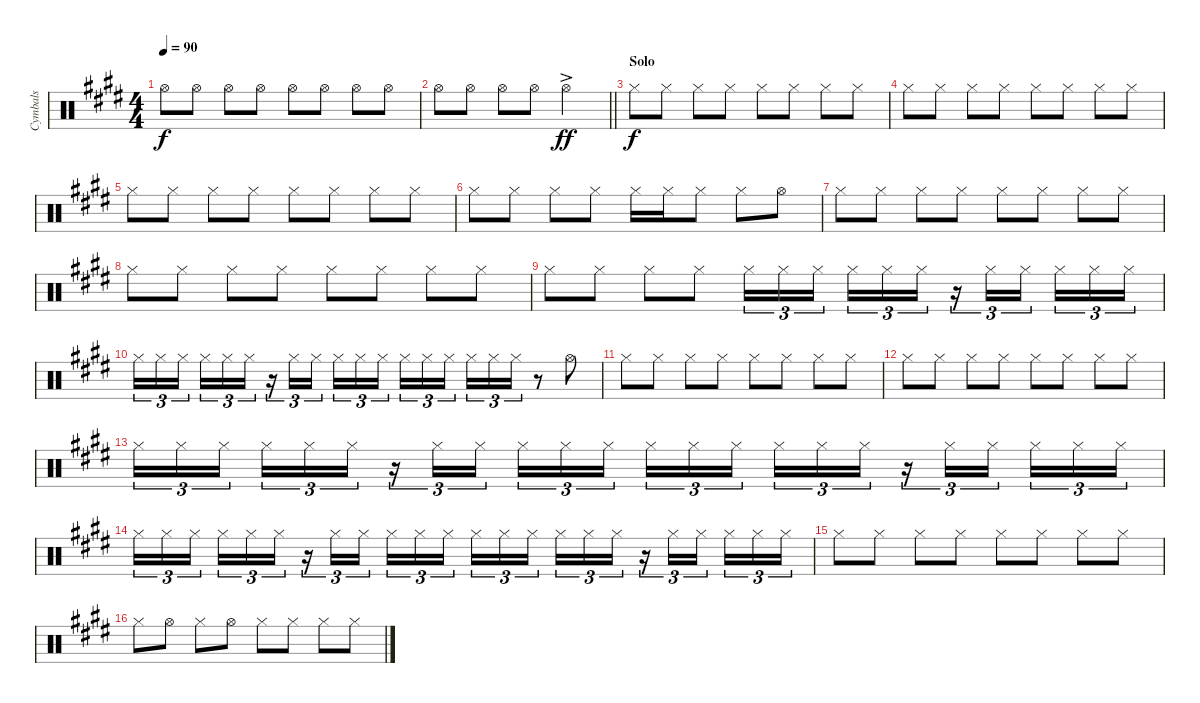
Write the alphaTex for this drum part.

\track ("Cymbals" "Cymbals") {instrument percussion}
\staff {score}
\articulation defaults
\ts (4 4)
\tempo 90
\clef neutral
\ks e "Hi-Hat (open)".8{dy f} "Hi-Hat (open)".8 "Hi-Hat (open)".8 "Hi-Hat (open)".8 "Hi-Hat (open)".8 "Hi-Hat (open)".8 "Hi-Hat (open)".8 "Hi-Hat (open)".8
|
\barLineRight lightlight "Hi-Hat (open)".8 "Hi-Hat (open)".8 "Hi-Hat (open)".8 "Hi-Hat (open)".8 "Hi-Hat (open)"{ac}.2{dy ff}
|
\section ("" "Solo")
"Hi-Hat (closed)".8{dy f} "Hi-Hat (closed)".8 "Hi-Hat (closed)".8 "Hi-Hat (closed)".8 "Hi-Hat (closed)".8 "Hi-Hat (closed)".8 "Hi-Hat (closed)".8 "Hi-Hat (closed)".8 |
"Hi-Hat (closed)".8 "Hi-Hat (closed)".8 "Hi-Hat (closed)".8 "Hi-Hat (closed)".8 "Hi-Hat (closed)".8 "Hi-Hat (closed)".8 "Hi-Hat (closed)".8 "Hi-Hat (closed)".8 |
"Hi-Hat (closed)".8 "Hi-Hat (closed)".8 "Hi-Hat (closed)".8 "Hi-Hat (closed)".8 "Hi-Hat (closed)".8 "Hi-Hat (closed)".8 "Hi-Hat (closed)".8 "Hi-Hat (closed)".8 |
"Hi-Hat (closed)".8 "Hi-Hat (closed)".8 "Hi-Hat (closed)".8 "Hi-Hat (closed)".8 "Hi-Hat (closed)".16 "Hi-Hat (closed)".16 "Hi-Hat (closed)".8 "Hi-Hat (closed)".8 "Hi-Hat (open)".8 |
"Hi-Hat (closed)".8 "Hi-Hat (closed)".8 "Hi-Hat (closed)".8 "Hi-Hat (closed)".8 "Hi-Hat (closed)".8 "Hi-Hat (closed)".8 "Hi-Hat (closed)".8 "Hi-Hat (closed)".8 |
"Hi-Hat (closed)".8 "Hi-Hat (closed)".8 "Hi-Hat (closed)".8 "Hi-Hat (closed)".8 "Hi-Hat (closed)".8 "Hi-Hat (closed)".8 "Hi-Hat (closed)".8 "Hi-Hat (closed)".8 |
"Hi-Hat (closed)".8 "Hi-Hat (closed)".8 "Hi-Hat (closed)".8 "Hi-Hat (closed)".8 "Hi-Hat (closed)".16{tu (3 2)} "Hi-Hat (closed)".16{tu (3 2)} "Hi-Hat (closed)".16{tu (3 2) beam splitsecondary} "Hi-Hat (closed)".16{tu (3 2)} "Hi-Hat (closed)".16{tu (3 2)} "Hi-Hat (closed)".16{tu (3 2)} r.16{tu (3 2)} "Hi-Hat (closed)".16{tu (3 2)} "Hi-Hat (closed)".16{tu (3 2) beam splitsecondary} "Hi-Hat (closed)".16{tu (3 2)} "Hi-Hat (closed)".16{tu (3 2)} "Hi-Hat (closed)".16{tu (3 2)} |
"Hi-Hat (closed)".16{tu (3 2)} "Hi-Hat (closed)".16{tu (3 2)} "Hi-Hat (closed)".16{tu (3 2) beam splitsecondary} "Hi-Hat (closed)".16{tu (3 2)} "Hi-Hat (closed)".16{tu (3 2)} "Hi-Hat (closed)".16{tu (3 2)} r.16{tu (3 2)} "Hi-Hat (closed)".16{tu (3 2)} "Hi-Hat (closed)".16{tu (3 2) beam splitsecondary} "Hi-Hat (closed)".16{tu (3 2)} "Hi-Hat (closed)".16{tu (3 2)} "Hi-Hat (closed)".16{tu (3 2)} "Hi-Hat (closed)".16{tu (3 2)} "Hi-Hat (closed)".16{tu (3 2)} "Hi-Hat (closed)".16{tu (3 2) beam splitsecondary} "Hi-Hat (closed)".16{tu (3 2)} "Hi-Hat (closed)".16{tu (3 2)} "Hi-Hat (closed)".16{tu (3 2)} r.8 "Hi-Hat (open)".8 |
"Hi-Hat (closed)".8 "Hi-Hat (closed)".8 "Hi-Hat (closed)".8 "Hi-Hat (closed)".8 "Hi-Hat (closed)".8 "Hi-Hat (closed)".8 "Hi-Hat (closed)".8 "Hi-Hat (closed)".8 |
"Hi-Hat (closed)".8 "Hi-Hat (closed)".8 "Hi-Hat (closed)".8 "Hi-Hat (closed)".8 "Hi-Hat (closed)".8 "Hi-Hat (closed)".8 "Hi-Hat (closed)".8 "Hi-Hat (closed)".8 |
"Hi-Hat (closed)".16{tu (3 2)} "Hi-Hat (closed)".16{tu (3 2)} "Hi-Hat (closed)".16{tu (3 2) beam splitsecondary} "Hi-Hat (closed)".16{tu (3 2)} "Hi-Hat (closed)".16{tu (3 2)} "Hi-Hat (closed)".16{tu (3 2)} r.16{tu (3 2)} "Hi-Hat (closed)".16{tu (3 2)} "Hi-Hat (closed)".16{tu (3 2) beam splitsecondary} "Hi-Hat (closed)".16{tu (3 2)} "Hi-Hat (closed)".16{tu (3 2)} "Hi-Hat (closed)".16{tu (3 2)} "Hi-Hat (closed)".16{tu (3 2)} "Hi-Hat (closed)".16{tu (3 2)} "Hi-Hat (closed)".16{tu (3 2) beam splitsecondary} "Hi-Hat (closed)".16{tu (3 2)} "Hi-Hat (closed)".16{tu (3 2)} "Hi-Hat (closed)".16{tu (3 2)} r.16{tu (3 2)} "Hi-Hat (closed)".16{tu (3 2)} "Hi-Hat (closed)".16{tu (3 2) beam splitsecondary} "Hi-Hat (closed)".16{tu (3 2)} "Hi-Hat (closed)".16{tu (3 2)} "Hi-Hat (closed)".16{tu (3 2)} |
"Hi-Hat (closed)".16{tu (3 2)} "Hi-Hat (closed)".16{tu (3 2)} "Hi-Hat (closed)".16{tu (3 2) beam splitsecondary} "Hi-Hat (closed)".16{tu (3 2)} "Hi-Hat (closed)".16{tu (3 2)} "Hi-Hat (closed)".16{tu (3 2)} r.16{tu (3 2)} "Hi-Hat (closed)".16{tu (3 2)} "Hi-Hat (closed)".16{tu (3 2) beam splitsecondary} "Hi-Hat (closed)".16{tu (3 2)} "Hi-Hat (closed)".16{tu (3 2)} "Hi-Hat (closed)".16{tu (3 2)} "Hi-Hat (closed)".16{tu (3 2)} "Hi-Hat (closed)".16{tu (3 2)} "Hi-Hat (closed)".16{tu (3 2) beam splitsecondary} "Hi-Hat (closed)".16{tu (3 2)} "Hi-Hat (closed)".16{tu (3 2)} "Hi-Hat (closed)".16{tu (3 2)} r.16{tu (3 2)} "Hi-Hat (closed)".16{tu (3 2)} "Hi-Hat (closed)".16{tu (3 2) beam splitsecondary} "Hi-Hat (closed)".16{tu (3 2)} "Hi-Hat (closed)".16{tu (3 2)} "Hi-Hat (closed)".16{tu (3 2)} |
"Hi-Hat (closed)".8 "Hi-Hat (closed)".8 "Hi-Hat (closed)".8 "Hi-Hat (closed)".8 "Hi-Hat (closed)".8 "Hi-Hat (closed)".8 "Hi-Hat (closed)".8 "Hi-Hat (closed)".8 |
"Hi-Hat (closed)".8 "Hi-Hat (open)".8 "Hi-Hat (closed)".8 "Hi-Hat (open)".8 "Hi-Hat (closed)".8 "Hi-Hat (closed)".8 "Hi-Hat (closed)".8 "Hi-Hat (closed)".8
